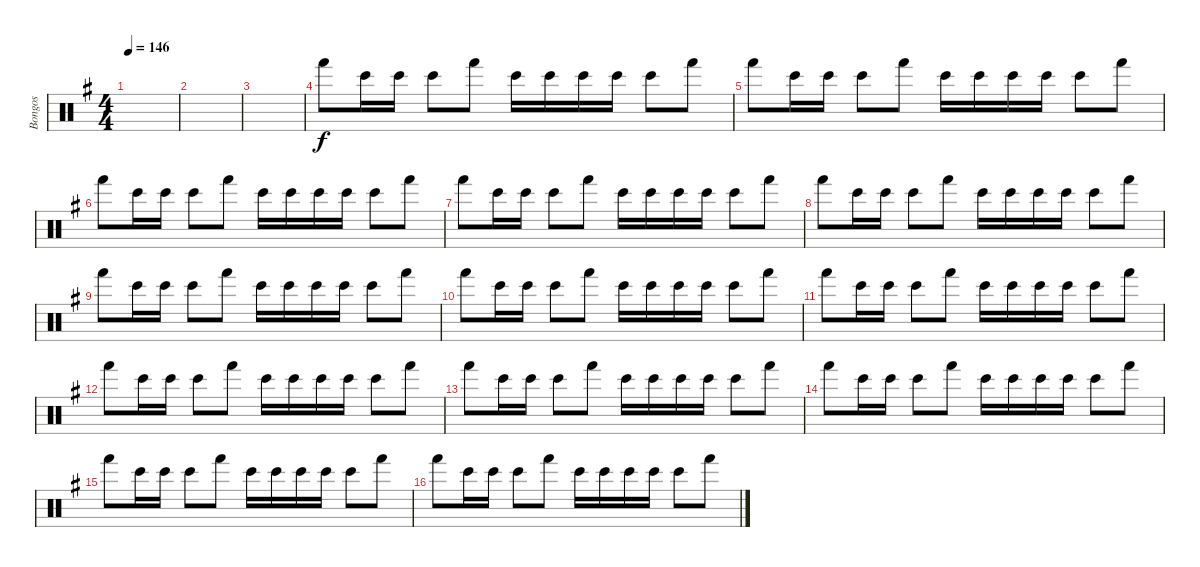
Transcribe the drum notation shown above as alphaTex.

\track ("Bongos" "Bongos") {instrument percussion}
\staff {score}
\articulation defaults
\ts (4 4)
\tempo 146
\clef neutral
\ks g
|
|
|
"Hand (hit)".8 "Bongo High (hit)".16 "Bongo High (hit)".16 "Bongo High (hit)".8 "Hand (hit)".8 "Bongo High (hit)".16 "Bongo High (hit)".16 "Bongo High (hit)".16 "Bongo High (hit)".16 "Bongo High (hit)".8 "Hand (hit)".8 |
"Hand (hit)".8 "Bongo High (hit)".16 "Bongo High (hit)".16 "Bongo High (hit)".8 "Hand (hit)".8 "Bongo High (hit)".16 "Bongo High (hit)".16 "Bongo High (hit)".16 "Bongo High (hit)".16 "Bongo High (hit)".8 "Hand (hit)".8 |
"Hand (hit)".8 "Bongo High (hit)".16 "Bongo High (hit)".16 "Bongo High (hit)".8 "Hand (hit)".8 "Bongo High (hit)".16 "Bongo High (hit)".16 "Bongo High (hit)".16 "Bongo High (hit)".16 "Bongo High (hit)".8 "Hand (hit)".8 |
"Hand (hit)".8 "Bongo High (hit)".16 "Bongo High (hit)".16 "Bongo High (hit)".8 "Hand (hit)".8 "Bongo High (hit)".16 "Bongo High (hit)".16 "Bongo High (hit)".16 "Bongo High (hit)".16 "Bongo High (hit)".8 "Hand (hit)".8 |
"Hand (hit)".8 "Bongo High (hit)".16 "Bongo High (hit)".16 "Bongo High (hit)".8 "Hand (hit)".8 "Bongo High (hit)".16 "Bongo High (hit)".16 "Bongo High (hit)".16 "Bongo High (hit)".16 "Bongo High (hit)".8 "Hand (hit)".8 |
"Hand (hit)".8 "Bongo High (hit)".16 "Bongo High (hit)".16 "Bongo High (hit)".8 "Hand (hit)".8 "Bongo High (hit)".16 "Bongo High (hit)".16 "Bongo High (hit)".16 "Bongo High (hit)".16 "Bongo High (hit)".8 "Hand (hit)".8 |
"Hand (hit)".8 "Bongo High (hit)".16 "Bongo High (hit)".16 "Bongo High (hit)".8 "Hand (hit)".8 "Bongo High (hit)".16 "Bongo High (hit)".16 "Bongo High (hit)".16 "Bongo High (hit)".16 "Bongo High (hit)".8 "Hand (hit)".8 |
"Hand (hit)".8 "Bongo High (hit)".16 "Bongo High (hit)".16 "Bongo High (hit)".8 "Hand (hit)".8 "Bongo High (hit)".16 "Bongo High (hit)".16 "Bongo High (hit)".16 "Bongo High (hit)".16 "Bongo High (hit)".8 "Hand (hit)".8 |
"Hand (hit)".8 "Bongo High (hit)".16 "Bongo High (hit)".16 "Bongo High (hit)".8 "Hand (hit)".8 "Bongo High (hit)".16 "Bongo High (hit)".16 "Bongo High (hit)".16 "Bongo High (hit)".16 "Bongo High (hit)".8 "Hand (hit)".8 |
"Hand (hit)".8 "Bongo High (hit)".16 "Bongo High (hit)".16 "Bongo High (hit)".8 "Hand (hit)".8 "Bongo High (hit)".16 "Bongo High (hit)".16 "Bongo High (hit)".16 "Bongo High (hit)".16 "Bongo High (hit)".8 "Hand (hit)".8 |
"Hand (hit)".8 "Bongo High (hit)".16 "Bongo High (hit)".16 "Bongo High (hit)".8 "Hand (hit)".8 "Bongo High (hit)".16 "Bongo High (hit)".16 "Bongo High (hit)".16 "Bongo High (hit)".16 "Bongo High (hit)".8 "Hand (hit)".8 |
"Hand (hit)".8 "Bongo High (hit)".16 "Bongo High (hit)".16 "Bongo High (hit)".8 "Hand (hit)".8 "Bongo High (hit)".16 "Bongo High (hit)".16 "Bongo High (hit)".16 "Bongo High (hit)".16 "Bongo High (hit)".8 "Hand (hit)".8 |
"Hand (hit)".8 "Bongo High (hit)".16 "Bongo High (hit)".16 "Bongo High (hit)".8 "Hand (hit)".8 "Bongo High (hit)".16 "Bongo High (hit)".16 "Bongo High (hit)".16 "Bongo High (hit)".16 "Bongo High (hit)".8 "Hand (hit)".8
